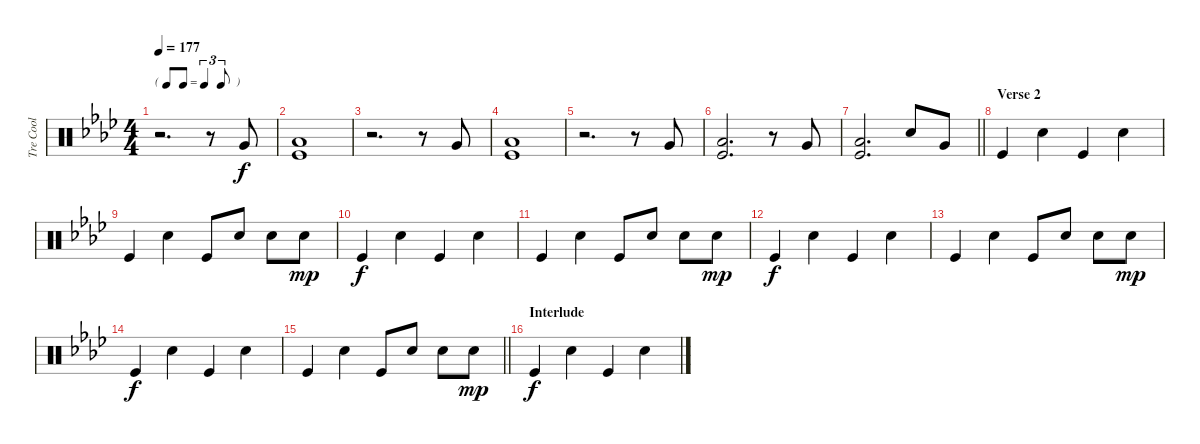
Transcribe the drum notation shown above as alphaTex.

\track ("Tre Cool" "Tre Cool") {instrument percussion}
\staff {score}
\articulation defaults
\ts (4 4)
\tf triplet8th
\tempo 177
\clef neutral
\ks ab
r.2{d dy f} r.8 "Very Low Tom (hit)".8 |
("Low Floor Tom (hit)" "Kick (hit)").1 |
r.2{d} r.8 "Very Low Tom (hit)".8 |
("Low Floor Tom (hit)" "Kick (hit)").1 |
r.2{d} r.8 "Very Low Tom (hit)".8 |
("Low Floor Tom (hit)" "Kick (hit)").2{d} r.8 "Very Low Tom (hit)".8 |
\barLineRight lightlight
("Low Floor Tom (hit)" "Kick (hit)").2{d} "Electric Snare (hit)".8 "Very Low Tom (hit)".8 |
\section ("" "Verse 2")
"Kick (hit)".4 "Electric Snare (hit)".4 "Kick (hit)".4 "Electric Snare (hit)".4 |
"Kick (hit)".4 "Electric Snare (hit)".4 "Kick (hit)".8 "Electric Snare (hit)".8 "Electric Snare (hit)".8 "Electric Snare (hit)".8{dy mp} |
"Kick (hit)".4{dy f} "Electric Snare (hit)".4 "Kick (hit)".4 "Electric Snare (hit)".4 |
"Kick (hit)".4 "Electric Snare (hit)".4 "Kick (hit)".8 "Electric Snare (hit)".8 "Electric Snare (hit)".8 "Electric Snare (hit)".8{dy mp} |
"Kick (hit)".4{dy f} "Electric Snare (hit)".4 "Kick (hit)".4 "Electric Snare (hit)".4 |
"Kick (hit)".4 "Electric Snare (hit)".4 "Kick (hit)".8 "Electric Snare (hit)".8 "Electric Snare (hit)".8 "Electric Snare (hit)".8{dy mp} |
"Kick (hit)".4{dy f} "Electric Snare (hit)".4 "Kick (hit)".4 "Electric Snare (hit)".4 |
\barLineRight lightlight "Kick (hit)".4 "Electric Snare (hit)".4 "Kick (hit)".8 "Electric Snare (hit)".8 "Electric Snare (hit)".8 "Electric Snare (hit)".8{dy mp}
|
\section ("" "Interlude")
"Kick (hit)".4{dy f} "Electric Snare (hit)".4 "Kick (hit)".4 "Electric Snare (hit)".4
